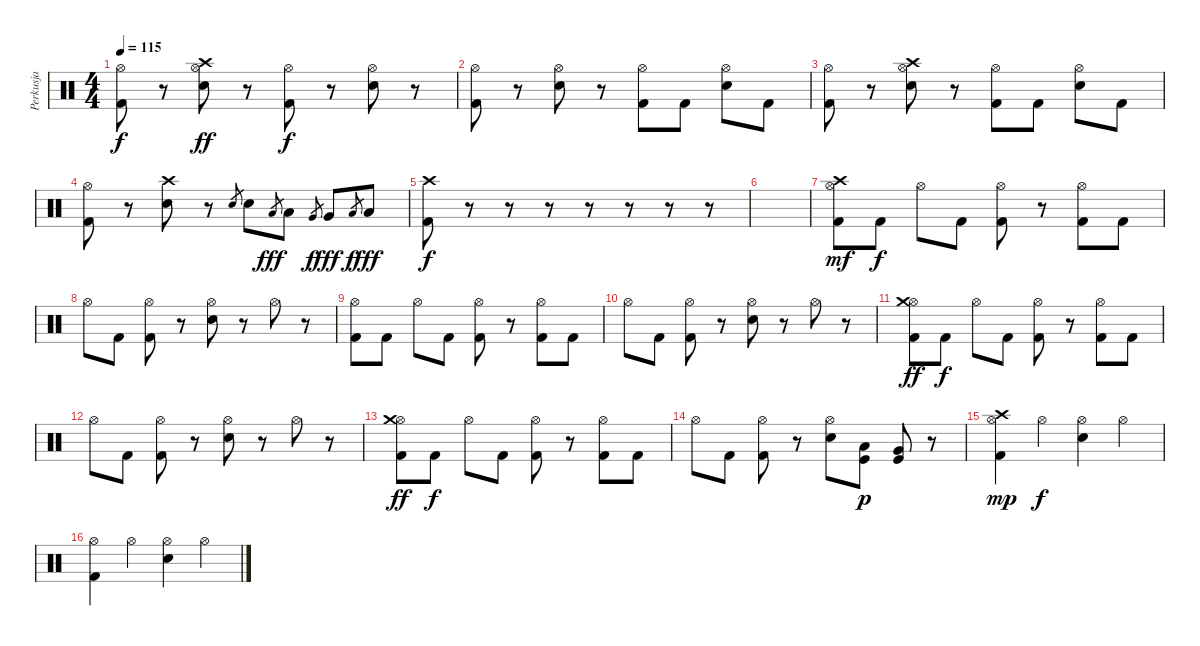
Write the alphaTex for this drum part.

\track ("Perkusja" "Perkusja") {instrument percussion}
\staff {score}
\articulation defaults
\ts (4 4)
\tempo 115
\clef neutral
\ks c
("Hi-Hat (open)" "Kick (hit) 2").8{dy f} r.8 ("Crash high (hit)" "Hi-Hat (open)" "Electric Snare (hit)").8{dy ff} r.8 ("Hi-Hat (open)" "Kick (hit) 2").8{dy f} r.8 ("Hi-Hat (open)" "Electric Snare (hit)").8 r.8 |
("Hi-Hat (open)" "Kick (hit) 2").8 r.8 ("Hi-Hat (open)" "Electric Snare (hit)").8 r.8 ("Hi-Hat (open)" "Kick (hit) 2").8 "Kick (hit) 2".8 ("Hi-Hat (open)" "Electric Snare (hit)").8 "Kick (hit) 2".8 |
("Hi-Hat (open)" "Kick (hit) 2").8 r.8 ("Crash high (hit)" "Hi-Hat (open)" "Electric Snare (hit)").8 r.8 ("Hi-Hat (open)" "Kick (hit) 2").8 "Kick (hit) 2".8 ("Hi-Hat (open)" "Electric Snare (hit)").8 "Kick (hit) 2".8 |
("Hi-Hat (open)" "Kick (hit) 2").8 r.8 ("Crash high (hit)" "Electric Snare (hit)").8 r.8 "Electric Snare (hit)".8{gr} "Electric Snare (hit)".8 "Low Tom (hit)".8{gr dy fff} "Low Tom (hit)".8 "Very Low Tom (hit)".8{gr dy f} "Very Low Tom (hit)".8{dy fff} "Low Floor Tom (hit)".8{gr dy f} "Low Floor Tom (hit)".8{dy fff} |
("Crash high (hit)" "Kick (hit) 2").8{dy f} r.8 r.8 r.8 r.8 r.8 r.8 r.8 |
|
("Hi-Hat (open)" "Crash high (hit)" "Kick (hit) 2").8{dy mf} "Kick (hit) 2".8{dy f} "Hi-Hat (open)".8 "Kick (hit) 2".8 ("Hi-Hat (open)" "Kick (hit) 2").8 r.8 ("Hi-Hat (open)" "Kick (hit) 2").8 "Kick (hit) 2".8 |
"Hi-Hat (open)".8 "Kick (hit) 2".8 ("Hi-Hat (open)" "Kick (hit) 2").8 r.8 ("Hi-Hat (open)" "Electric Snare (hit)").8 r.8 "Hi-Hat (open)".8 r.8 |
("Hi-Hat (open)" "Kick (hit) 2").8 "Kick (hit) 2".8 "Hi-Hat (open)".8 "Kick (hit) 2".8 ("Hi-Hat (open)" "Kick (hit) 2").8 r.8 ("Hi-Hat (open)" "Kick (hit) 2").8 "Kick (hit) 2".8 |
"Hi-Hat (open)".8 "Kick (hit) 2".8 ("Hi-Hat (open)" "Kick (hit) 2").8 r.8 ("Hi-Hat (open)" "Electric Snare (hit)").8 r.8 "Hi-Hat (open)".8 r.8 |
("Hi-Hat (open)" "Crash medium (hit)" "Kick (hit) 2").8{dy ff} "Kick (hit) 2".8{dy f} "Hi-Hat (open)".8 "Kick (hit) 2".8 ("Hi-Hat (open)" "Kick (hit) 2").8 r.8 ("Hi-Hat (open)" "Kick (hit) 2").8 "Kick (hit) 2".8 |
"Hi-Hat (open)".8 "Kick (hit) 2".8 ("Hi-Hat (open)" "Kick (hit) 2").8 r.8 ("Hi-Hat (open)" "Electric Snare (hit)").8 r.8 "Hi-Hat (open)".8 r.8 |
("Hi-Hat (open)" "Crash medium (hit)" "Kick (hit) 2").8{dy ff} "Kick (hit) 2".8{dy f} "Hi-Hat (open)".8 "Kick (hit) 2".8 ("Hi-Hat (open)" "Kick (hit) 2").8 r.8 ("Hi-Hat (open)" "Kick (hit) 2").8 "Kick (hit) 2".8 |
"Hi-Hat (open)".8 "Kick (hit) 2".8 ("Hi-Hat (open)" "Kick (hit) 2").8 r.8 ("Hi-Hat (open)" "Electric Snare (hit)").8 ("Low Tom (hit)" "Kick (hit)").8{dy p} ("Very Low Tom (hit)" "Kick (hit)").8 r.8 |
("Crash high (hit)" "Hi-Hat (open)" "Kick (hit) 2").4{dy mp} "Hi-Hat (open)".4{dy f} ("Hi-Hat (open)" "Electric Snare (hit)").4 "Hi-Hat (open)".4 |
("Hi-Hat (open)" "Kick (hit) 2").4 "Hi-Hat (open)".4 ("Hi-Hat (open)" "Electric Snare (hit)").4 "Hi-Hat (open)".4
